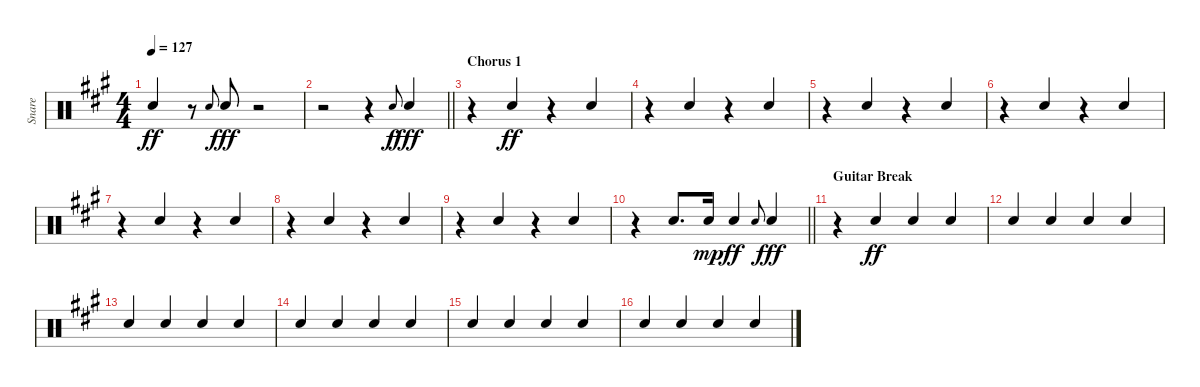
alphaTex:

\track ("Snare" "Snare") {instrument percussion}
\staff {score}
\articulation defaults
\ts (4 4)
\tempo 127
\clef neutral
\ks a "Electric Snare (hit)".4{dy ff beam Up}
r.8 "Electric Snare (hit)".8{gr onbeat} "Electric Snare (hit)".8{dy fff beam Up} r.2 |
\barLineRight lightlight
r.2 r.4 "Electric Snare (hit)".8{gr onbeat dy f} "Electric Snare (hit)".4{dy fff beam Up} |
\section ("" "Chorus 1")
r.4{beam merge} "Electric Snare (hit)".4{dy ff beam Up} r.4{beam merge} "Electric Snare (hit)".4{beam Up} |
r.4{beam merge} "Electric Snare (hit)".4{beam Up} r.4{beam merge} "Electric Snare (hit)".4{beam Up} |
r.4{beam merge} "Electric Snare (hit)".4{beam Up} r.4{beam merge} "Electric Snare (hit)".4{beam Up} |
r.4{beam merge} "Electric Snare (hit)".4{beam Up} r.4{beam merge} "Electric Snare (hit)".4{beam Up} |
r.4{beam merge} "Electric Snare (hit)".4{beam Up} r.4{beam merge} "Electric Snare (hit)".4{beam Up} |
r.4{beam merge} "Electric Snare (hit)".4{beam Up} r.4{beam merge} "Electric Snare (hit)".4{beam Up} |
r.4{beam merge} "Electric Snare (hit)".4{beam Up} r.4{beam merge} "Electric Snare (hit)".4{beam Up} |
\barLineRight lightlight
r.4 "Electric Snare (hit)".8{d beam Up} "Electric Snare (hit)".16{dy mp beam Up} "Electric Snare (hit)".4{dy ff beam Up} "Electric Snare (hit)".8{gr onbeat} "Electric Snare (hit)".4{dy fff beam Up} |
\section ("" "Guitar Break")
r.4 "Electric Snare (hit)".4{dy ff beam Up} "Electric Snare (hit)".4{beam Up} "Electric Snare (hit)".4{beam Up} |
"Electric Snare (hit)".4{beam Up} "Electric Snare (hit)".4{beam Up} "Electric Snare (hit)".4{beam Up} "Electric Snare (hit)".4{beam Up} |
"Electric Snare (hit)".4{beam Up} "Electric Snare (hit)".4{beam Up} "Electric Snare (hit)".4{beam Up} "Electric Snare (hit)".4{beam Up} |
"Electric Snare (hit)".4{beam Up} "Electric Snare (hit)".4{beam Up} "Electric Snare (hit)".4{beam Up} "Electric Snare (hit)".4{beam Up} |
"Electric Snare (hit)".4{beam Up} "Electric Snare (hit)".4{beam Up} "Electric Snare (hit)".4{beam Up} "Electric Snare (hit)".4{beam Up} |
"Electric Snare (hit)".4{beam Up} "Electric Snare (hit)".4{beam Up} "Electric Snare (hit)".4{beam Up} "Electric Snare (hit)".4{beam Up}
